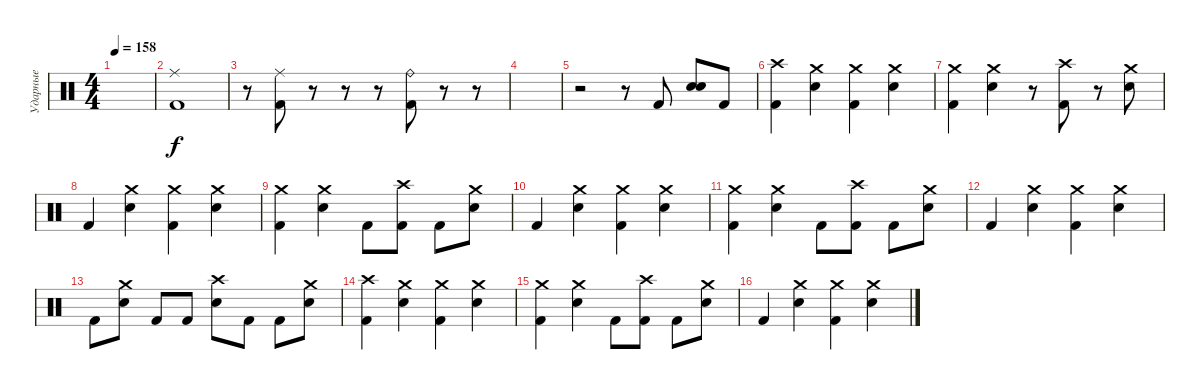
\track ("Ударные" "Ударные") {instrument percussion}
\staff {score}
\articulation defaults
\ts (4 4)
\tempo 158
\clef neutral
\ks c
|
("Ride (middle)" "Kick (hit) 2").1 |
r.8 ("Ride (middle)" "Kick (hit) 2").8 r.8 r.8 r.8 ("Ride (bell)" "Kick (hit) 2").8 r.8 r.8 |
|
r.2 r.8 "Kick (hit) 2".8 ("Snare (hit) 2" "Snare (hit) 2").8 "Kick (hit) 2".8 |
("Crash high (hit)" "Kick (hit) 2").4 ("Crash medium (hit)" "Snare (hit) 2").4 ("Crash medium (hit)" "Kick (hit) 2").4 ("Crash medium (hit)" "Snare (hit) 2").4 |
("Crash medium (hit)" "Kick (hit) 2").4 ("Crash medium (hit)" "Snare (hit) 2").4 r.8 ("Crash high (hit)" "Kick (hit) 2").8 r.8 ("Crash medium (hit)" "Snare (hit) 2").8 |
"Kick (hit) 2".4 ("Crash medium (hit)" "Snare (hit) 2").4 ("Crash medium (hit)" "Kick (hit) 2").4 ("Crash medium (hit)" "Snare (hit) 2").4 |
("Crash medium (hit)" "Kick (hit) 2").4 ("Crash medium (hit)" "Snare (hit) 2").4 "Kick (hit) 2".8 ("Crash high (hit)" "Kick (hit) 2").8 "Kick (hit) 2".8 ("Crash medium (hit)" "Snare (hit) 2").8 |
"Kick (hit) 2".4 ("Crash medium (hit)" "Snare (hit) 2").4 ("Crash medium (hit)" "Kick (hit) 2").4 ("Crash medium (hit)" "Snare (hit) 2").4 |
("Crash medium (hit)" "Kick (hit) 2").4 ("Crash medium (hit)" "Snare (hit) 2").4 "Kick (hit) 2".8 ("Crash high (hit)" "Kick (hit) 2").8 "Kick (hit) 2".8 ("Crash medium (hit)" "Snare (hit) 2").8 |
"Kick (hit) 2".4 ("Crash medium (hit)" "Snare (hit) 2").4 ("Crash medium (hit)" "Kick (hit) 2").4 ("Crash medium (hit)" "Snare (hit) 2").4 |
"Kick (hit) 2".8 ("Crash medium (hit)" "Snare (hit) 2").8 "Kick (hit) 2".8 "Kick (hit) 2".8 ("Crash high (hit)" "Snare (hit) 2").8 "Kick (hit) 2".8 "Kick (hit) 2".8 ("Crash medium (hit)" "Snare (hit) 2").8 |
("Crash high (hit)" "Kick (hit) 2").4 ("Crash medium (hit)" "Snare (hit) 2").4 ("Crash medium (hit)" "Kick (hit) 2").4 ("Crash medium (hit)" "Snare (hit) 2").4 |
("Crash medium (hit)" "Kick (hit) 2").4 ("Crash medium (hit)" "Snare (hit) 2").4 "Kick (hit) 2".8 ("Crash high (hit)" "Kick (hit) 2").8 "Kick (hit) 2".8 ("Crash medium (hit)" "Snare (hit) 2").8 |
"Kick (hit) 2".4 ("Crash medium (hit)" "Snare (hit) 2").4 ("Crash medium (hit)" "Kick (hit) 2").4 ("Crash medium (hit)" "Snare (hit) 2").4
